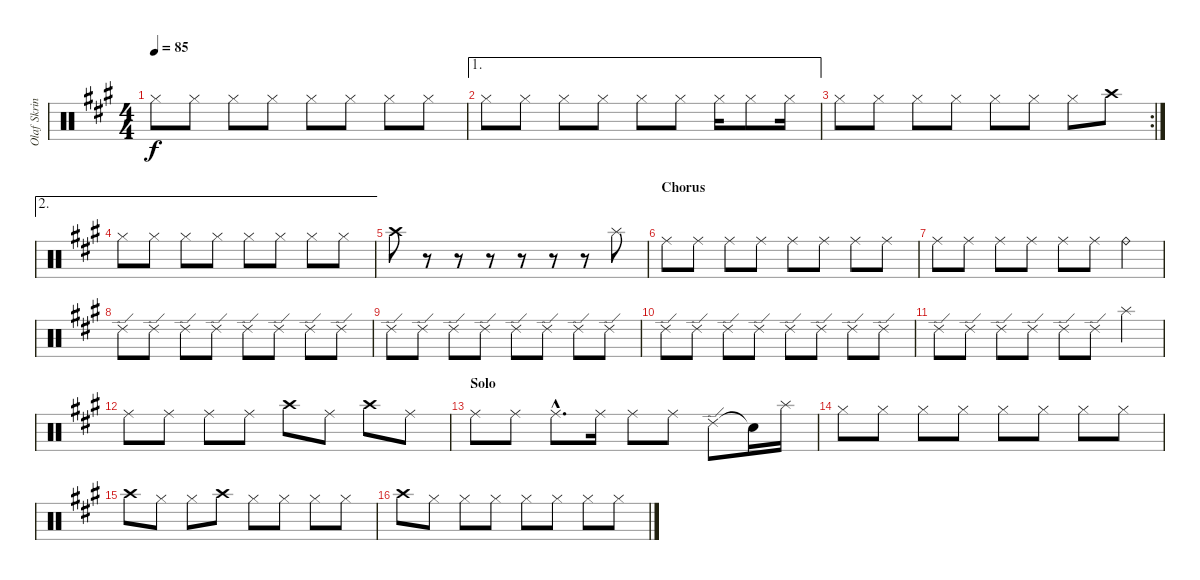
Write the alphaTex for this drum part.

\track ("Olaf Skrinde (Drums)" "Olaf Skrin") {instrument percussion}
\staff {score}
\articulation defaults
\ts (4 4)
\tempo 85
\clef neutral
\ks a "Hi-Hat (closed)".8{dy f} "Hi-Hat (closed)".8 "Hi-Hat (closed)".8 "Hi-Hat (closed)".8 "Hi-Hat (closed)".8 "Hi-Hat (closed)".8 "Hi-Hat (closed)".8 "Hi-Hat (closed)".8
|
\ae 1 "Hi-Hat (closed)".8 "Hi-Hat (closed)".8 "Hi-Hat (closed)".8 "Hi-Hat (closed)".8 "Hi-Hat (closed)".8 "Hi-Hat (closed)".8 "Hi-Hat (closed)".16 "Hi-Hat (closed)".8 "Hi-Hat (closed)".16
|
\rc 2 "Hi-Hat (closed)".8 "Hi-Hat (closed)".8 "Hi-Hat (closed)".8 "Hi-Hat (closed)".8 "Hi-Hat (closed)".8 "Hi-Hat (closed)".8 "Hi-Hat (closed)".8 "Crash high (hit)".8
|
\ae 2 "Hi-Hat (closed)".8 "Hi-Hat (closed)".8 "Hi-Hat (closed)".8 "Hi-Hat (closed)".8 "Hi-Hat (closed)".8 "Hi-Hat (closed)".8 "Hi-Hat (closed)".8 "Hi-Hat (closed)".8
|
"Crash high (hit)".8 r.8 r.8 r.8 r.8 r.8 r.8 "Splash (hit)".8 |
\section ("" "Chorus")
"Ride (middle)".8 "Ride (middle)".8 "Ride (middle)".8 "Ride (middle)".8 "Ride (middle)".8 "Ride (middle)".8 "Ride (middle)".8 "Ride (middle)".8 |
"Ride (middle)".8 "Ride (middle)".8 "Ride (middle)".8 "Ride (middle)".8 "Ride (middle)".8 "Ride (middle)".8 "Ride (bell)".4 |
"Ride (edge) 2".8 "Ride (edge) 2".8 "Ride (edge) 2".8 "Ride (edge) 2".8 "Ride (edge) 2".8 "Ride (edge) 2".8 "Ride (edge) 2".8 "Ride (edge) 2".8 |
"Ride (edge) 2".8 "Ride (edge) 2".8 "Ride (edge) 2".8 "Ride (edge) 2".8 "Ride (edge) 2".8 "Ride (edge) 2".8 "Ride (edge) 2".8 "Ride (edge) 2".8 |
"Ride (edge) 2".8 "Ride (edge) 2".8 "Ride (edge) 2".8 "Ride (edge) 2".8 "Ride (edge) 2".8 "Ride (edge) 2".8 "Ride (edge) 2".8 "Ride (edge) 2".8 |
"Ride (edge) 2".8 "Ride (edge) 2".8 "Ride (edge) 2".8 "Ride (edge) 2".8 "Ride (edge) 2".8 "Ride (edge) 2".8 "Splash (hit)".4 |
"Ride (middle)".8 "Ride (middle)".8 "Ride (middle)".8 "Ride (middle)".8 "Crash high (hit)".8 "Ride (middle)".8 "Crash high (hit)".8 "Ride (middle)".8 |
\section ("" "Solo")
"Ride (middle)".8 "Ride (middle)".8 "Ride (middle)"{hac}.8{d} "Ride (middle)".16 "Ride (middle)".8 "Ride (middle)".8 "Ride (edge) 2".8 "Snare (hit)"{t}.16 "Splash (hit)".16 |
"Hi-Hat (closed)".8 "Hi-Hat (closed)".8 "Hi-Hat (closed)".8 "Hi-Hat (closed)".8 "Hi-Hat (closed)".8 "Hi-Hat (closed)".8 "Hi-Hat (closed)".8 "Hi-Hat (closed)".8 |
"Crash high (hit)".8 "Hi-Hat (closed)".8 "Hi-Hat (closed)".8 "Crash high (hit)".8 "Hi-Hat (closed)".8 "Hi-Hat (closed)".8 "Hi-Hat (closed)".8 "Hi-Hat (closed)".8 |
"Crash high (hit)".8 "Hi-Hat (closed)".8 "Hi-Hat (closed)".8 "Hi-Hat (closed)".8 "Hi-Hat (closed)".8 "Hi-Hat (closed)".8 "Hi-Hat (closed)".8 "Hi-Hat (closed)".8
